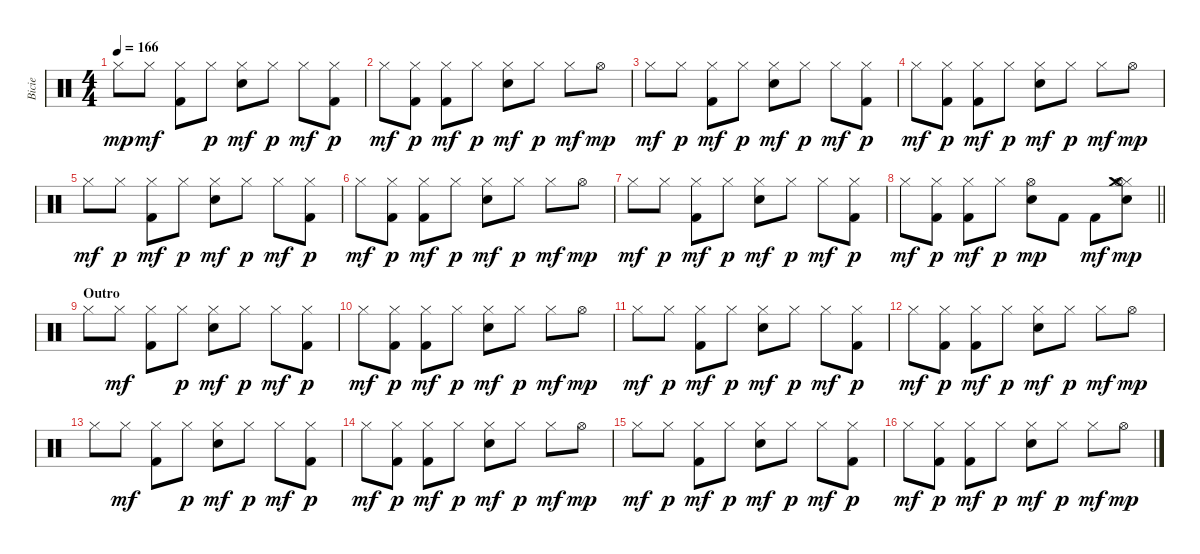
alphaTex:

\track ("Bicie" "Bicie") {instrument percussion}
\staff {score}
\articulation defaults
\ts (4 4)
\tempo 166
\clef neutral
\ks c "Hi-Hat (closed)".8{dy mp} "Hi-Hat (closed)".8{dy mf}
("Kick (hit) 2" "Hi-Hat (closed)").8 "Hi-Hat (closed)".8{dy p} ("Electric Snare (hit)" "Hi-Hat (closed)").8{dy mf} "Hi-Hat (closed)".8{dy p} "Hi-Hat (closed)".8{dy mf} ("Kick (hit) 2" "Hi-Hat (closed)").8{dy p} |
"Hi-Hat (closed)".8{dy mf} ("Kick (hit) 2" "Hi-Hat (closed)").8{dy p} ("Kick (hit) 2" "Hi-Hat (closed)").8{dy mf} "Hi-Hat (closed)".8{dy p} ("Electric Snare (hit)" "Hi-Hat (closed)").8{dy mf} "Hi-Hat (closed)".8{dy p} "Hi-Hat (closed)".8{dy mf} "Hi-Hat (open)".8{dy mp} |
"Hi-Hat (closed)".8{dy mf} "Hi-Hat (closed)".8{dy p} ("Kick (hit) 2" "Hi-Hat (closed)").8{dy mf} "Hi-Hat (closed)".8{dy p} ("Electric Snare (hit)" "Hi-Hat (closed)").8{dy mf} "Hi-Hat (closed)".8{dy p} "Hi-Hat (closed)".8{dy mf} ("Kick (hit) 2" "Hi-Hat (closed)").8{dy p} |
"Hi-Hat (closed)".8{dy mf} ("Kick (hit) 2" "Hi-Hat (closed)").8{dy p} ("Kick (hit) 2" "Hi-Hat (closed)").8{dy mf} "Hi-Hat (closed)".8{dy p} ("Electric Snare (hit)" "Hi-Hat (closed)").8{dy mf} "Hi-Hat (closed)".8{dy p} "Hi-Hat (closed)".8{dy mf} "Hi-Hat (open)".8{dy mp} |
"Hi-Hat (closed)".8{dy mf} "Hi-Hat (closed)".8{dy p} ("Kick (hit) 2" "Hi-Hat (closed)").8{dy mf} "Hi-Hat (closed)".8{dy p} ("Electric Snare (hit)" "Hi-Hat (closed)").8{dy mf} "Hi-Hat (closed)".8{dy p} "Hi-Hat (closed)".8{dy mf} ("Kick (hit) 2" "Hi-Hat (closed)").8{dy p} |
"Hi-Hat (closed)".8{dy mf} ("Kick (hit) 2" "Hi-Hat (closed)").8{dy p} ("Kick (hit) 2" "Hi-Hat (closed)").8{dy mf} "Hi-Hat (closed)".8{dy p} ("Electric Snare (hit)" "Hi-Hat (closed)").8{dy mf} "Hi-Hat (closed)".8{dy p} "Hi-Hat (closed)".8{dy mf} "Hi-Hat (open)".8{dy mp} |
"Hi-Hat (closed)".8{dy mf} "Hi-Hat (closed)".8{dy p} ("Kick (hit) 2" "Hi-Hat (closed)").8{dy mf} "Hi-Hat (closed)".8{dy p} ("Electric Snare (hit)" "Hi-Hat (closed)").8{dy mf} "Hi-Hat (closed)".8{dy p} "Hi-Hat (closed)".8{dy mf} ("Kick (hit) 2" "Hi-Hat (closed)").8{dy p} |
\barLineRight lightlight "Hi-Hat (closed)".8{dy mf}
("Kick (hit) 2" "Hi-Hat (closed)").8{dy p} ("Kick (hit) 2" "Hi-Hat (closed)").8{dy mf} "Hi-Hat (closed)".8{dy p} ("Hi-Hat (open)" "Electric Snare (hit)").8{dy mp} "Kick (hit) 2".8 "Kick (hit) 2".8{dy mf} ("Hi-Hat (closed)" "Electric Snare (hit)" "Hi-Hat (open)" "Crash medium (hit)").8{dy mp} |
\section ("" "Outro")
"Hi-Hat (closed)".8 "Hi-Hat (closed)".8{dy mf} ("Kick (hit) 2" "Hi-Hat (closed)").8 "Hi-Hat (closed)".8{dy p} ("Electric Snare (hit)" "Hi-Hat (closed)").8{dy mf} "Hi-Hat (closed)".8{dy p} "Hi-Hat (closed)".8{dy mf} ("Kick (hit) 2" "Hi-Hat (closed)").8{dy p} |
"Hi-Hat (closed)".8{dy mf} ("Kick (hit) 2" "Hi-Hat (closed)").8{dy p} ("Kick (hit) 2" "Hi-Hat (closed)").8{dy mf} "Hi-Hat (closed)".8{dy p} ("Electric Snare (hit)" "Hi-Hat (closed)").8{dy mf} "Hi-Hat (closed)".8{dy p} "Hi-Hat (closed)".8{dy mf} "Hi-Hat (open)".8{dy mp} |
"Hi-Hat (closed)".8{dy mf} "Hi-Hat (closed)".8{dy p} ("Kick (hit) 2" "Hi-Hat (closed)").8{dy mf} "Hi-Hat (closed)".8{dy p} ("Electric Snare (hit)" "Hi-Hat (closed)").8{dy mf} "Hi-Hat (closed)".8{dy p} "Hi-Hat (closed)".8{dy mf} ("Kick (hit) 2" "Hi-Hat (closed)").8{dy p} |
"Hi-Hat (closed)".8{dy mf} ("Kick (hit) 2" "Hi-Hat (closed)").8{dy p} ("Kick (hit) 2" "Hi-Hat (closed)").8{dy mf} "Hi-Hat (closed)".8{dy p} ("Electric Snare (hit)" "Hi-Hat (closed)").8{dy mf} "Hi-Hat (closed)".8{dy p} "Hi-Hat (closed)".8{dy mf} "Hi-Hat (open)".8{dy mp} |
"Hi-Hat (closed)".8 "Hi-Hat (closed)".8{dy mf} ("Kick (hit) 2" "Hi-Hat (closed)").8 "Hi-Hat (closed)".8{dy p} ("Electric Snare (hit)" "Hi-Hat (closed)").8{dy mf} "Hi-Hat (closed)".8{dy p} "Hi-Hat (closed)".8{dy mf} ("Kick (hit) 2" "Hi-Hat (closed)").8{dy p} |
"Hi-Hat (closed)".8{dy mf} ("Kick (hit) 2" "Hi-Hat (closed)").8{dy p} ("Kick (hit) 2" "Hi-Hat (closed)").8{dy mf} "Hi-Hat (closed)".8{dy p} ("Electric Snare (hit)" "Hi-Hat (closed)").8{dy mf} "Hi-Hat (closed)".8{dy p} "Hi-Hat (closed)".8{dy mf} "Hi-Hat (open)".8{dy mp} |
"Hi-Hat (closed)".8{dy mf} "Hi-Hat (closed)".8{dy p} ("Kick (hit) 2" "Hi-Hat (closed)").8{dy mf} "Hi-Hat (closed)".8{dy p} ("Electric Snare (hit)" "Hi-Hat (closed)").8{dy mf} "Hi-Hat (closed)".8{dy p} "Hi-Hat (closed)".8{dy mf} ("Kick (hit) 2" "Hi-Hat (closed)").8{dy p} |
"Hi-Hat (closed)".8{dy mf} ("Kick (hit) 2" "Hi-Hat (closed)").8{dy p} ("Kick (hit) 2" "Hi-Hat (closed)").8{dy mf} "Hi-Hat (closed)".8{dy p} ("Electric Snare (hit)" "Hi-Hat (closed)").8{dy mf} "Hi-Hat (closed)".8{dy p} "Hi-Hat (closed)".8{dy mf} "Hi-Hat (open)".8{dy mp}
